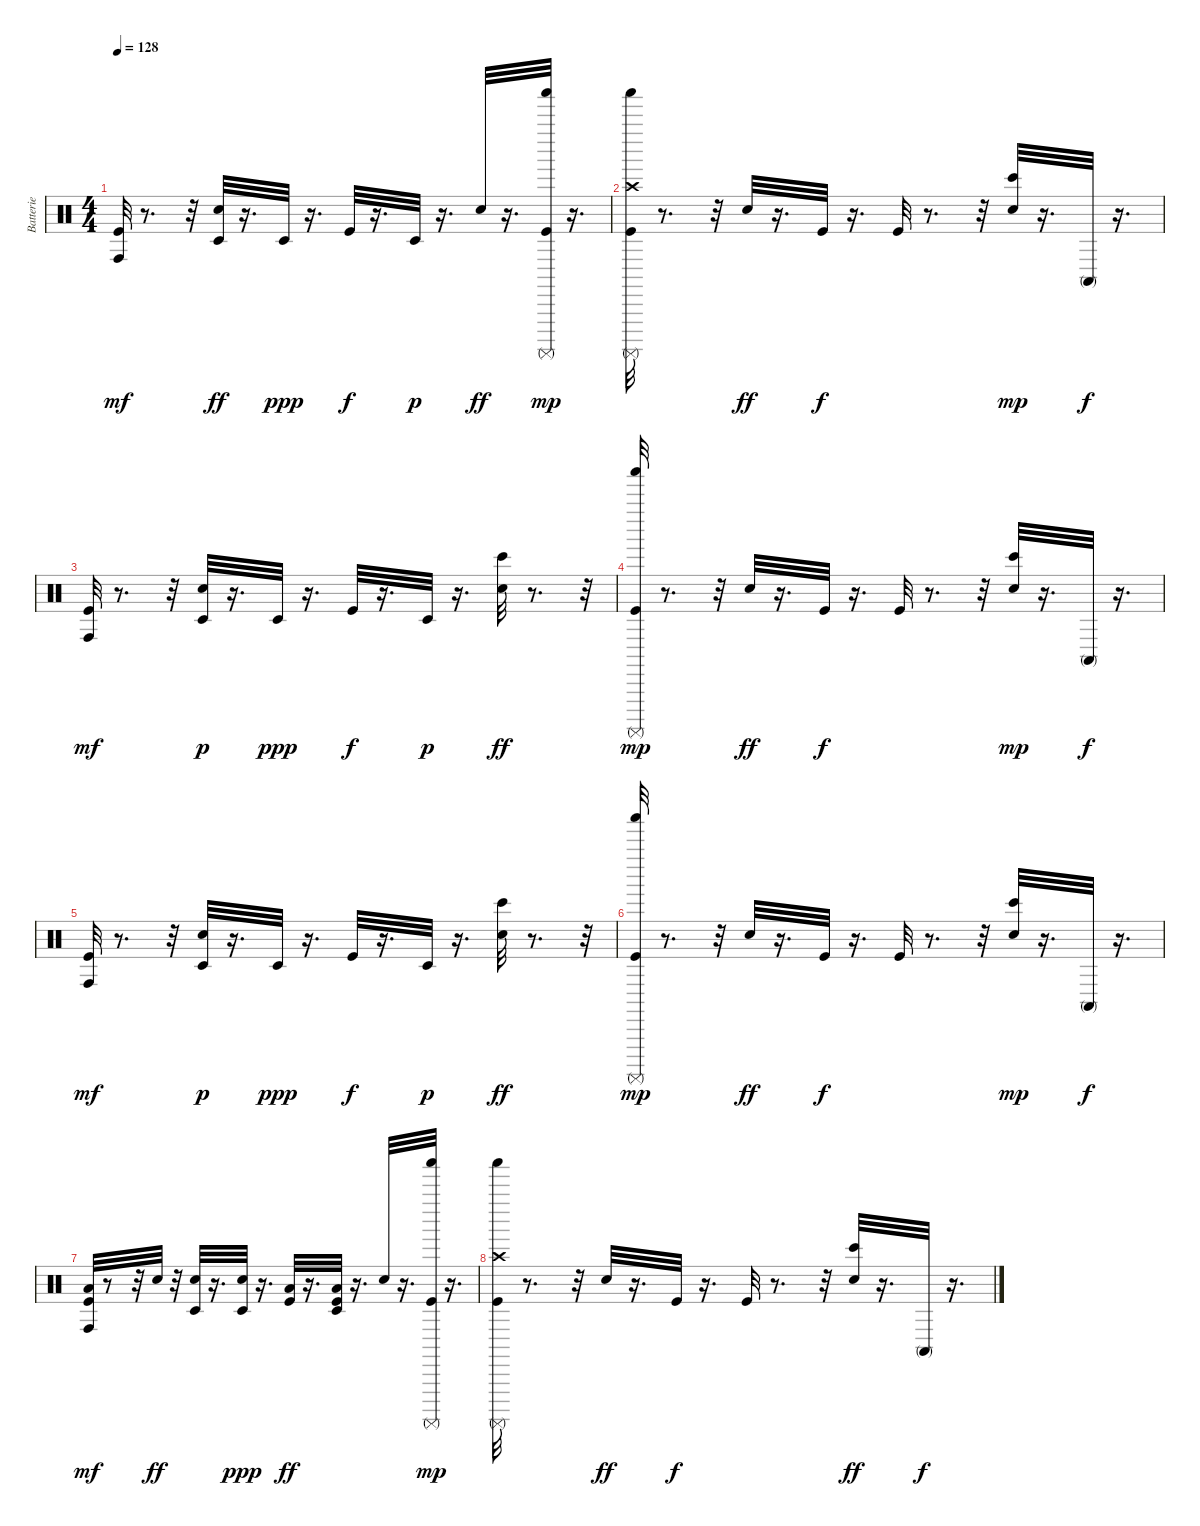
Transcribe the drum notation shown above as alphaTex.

\track ("Batterie" "Batterie") {instrument percussion}
\staff {score}
\articulation defaults
\ts (4 4)
\tempo 128
\clef neutral
\ks c
("Kick (hit)" "Conga high (hit)").32{dy mf} r.8{d} r.32 ("Timbale low (hit)" "Electric Snare (hit)").32{dy ff} r.16{d} "Timbale low (hit)".32{dy ppp} r.16{d} "Kick (hit)".32{dy f} r.16{d} "Timbale low (hit)".32{dy p} r.16{d} "Electric Snare (hit)".32{dy ff} r.16{d} ("Shaker (hit)" "Surdo (mute)" "Kick (hit)").32{dy mp} r.16{d} |
("Surdo (mute)" "Kick (hit)" "Crash high (hit)" "Shaker (hit)").32 r.8{d} r.32 "Electric Snare (hit)".32{dy ff} r.16{d} "Kick (hit)".32{dy f} r.16{d} "Kick (hit)".32 r.8{d} r.32 ("Electric Snare (hit)" "Bongo High (hit)").32{dy mp} r.16{d} "Conga high (mute)".32{dy f} r.16{d} |
("Kick (hit)" "Conga high (hit)").32{dy mf} r.8{d} r.32 ("Electric Snare (hit)" "Timbale low (hit)").32{dy p} r.16{d} "Timbale low (hit)".32{dy ppp} r.16{d} "Kick (hit)".32{dy f} r.16{d} "Timbale low (hit)".32{dy p} r.16{d} ("Bongo High (hit)" "Electric Snare (hit)").32{dy ff} r.8{d} r.32 |
("Surdo (mute)" "Kick (hit)" "Shaker (hit)").32{dy mp} r.8{d} r.32 "Electric Snare (hit)".32{dy ff} r.16{d} "Kick (hit)".32{dy f} r.16{d} "Kick (hit)".32 r.8{d} r.32 ("Electric Snare (hit)" "Bongo High (hit)").32{dy mp} r.16{d} "Conga high (mute)".32{dy f} r.16{d} |
("Conga high (hit)" "Kick (hit)").32{dy mf} r.8{d} r.32 ("Electric Snare (hit)" "Timbale low (hit)").32{dy p} r.16{d} "Timbale low (hit)".32{dy ppp} r.16{d} "Kick (hit)".32{dy f} r.16{d} "Timbale low (hit)".32{dy p} r.16{d} ("Bongo High (hit)" "Electric Snare (hit)").32{dy ff} r.8{d} r.32 |
("Kick (hit)" "Surdo (mute)" "Shaker (hit)").32{dy mp} r.8{d} r.32 "Electric Snare (hit)".32{dy ff} r.16{d} "Kick (hit)".32{dy f} r.16{d} "Kick (hit)".32 r.8{d} r.32 ("Electric Snare (hit)" "Bongo High (hit)").32{dy mp} r.16{d} "Conga high (mute)".32{dy f} r.16{d} |
("Conga high (hit)" "Low Tom (hit)" "Kick (hit)").32{dy mf} r.8 r.32 "Electric Snare (hit)".32{dy ff} r.32 ("Timbale low (hit)" "Electric Snare (hit)").32 r.16{d} ("Electric Snare (hit)" "Timbale low (hit)").32{dy ppp} r.16{d} ("Kick (hit)" "Low Floor Tom (hit)").32{dy ff} r.16{d} ("Low Floor Tom (hit)" "Timbale low (hit)" "Kick (hit)").32 r.16{d} "Electric Snare (hit)".32 r.16{d} ("Kick (hit)" "Shaker (hit)" "Surdo (mute)").32{dy mp} r.16{d} |
("Kick (hit)" "Shaker (hit)" "Surdo (mute)" "Crash high (hit)").32 r.8{d} r.32 "Electric Snare (hit)".32{dy ff} r.16{d} "Kick (hit)".32{dy f} r.16{d} "Kick (hit)".32 r.8{d} r.32 ("Bongo High (hit)" "Electric Snare (hit)").32{dy ff} r.16{d} "Conga high (mute)".32{dy f} r.16{d}
